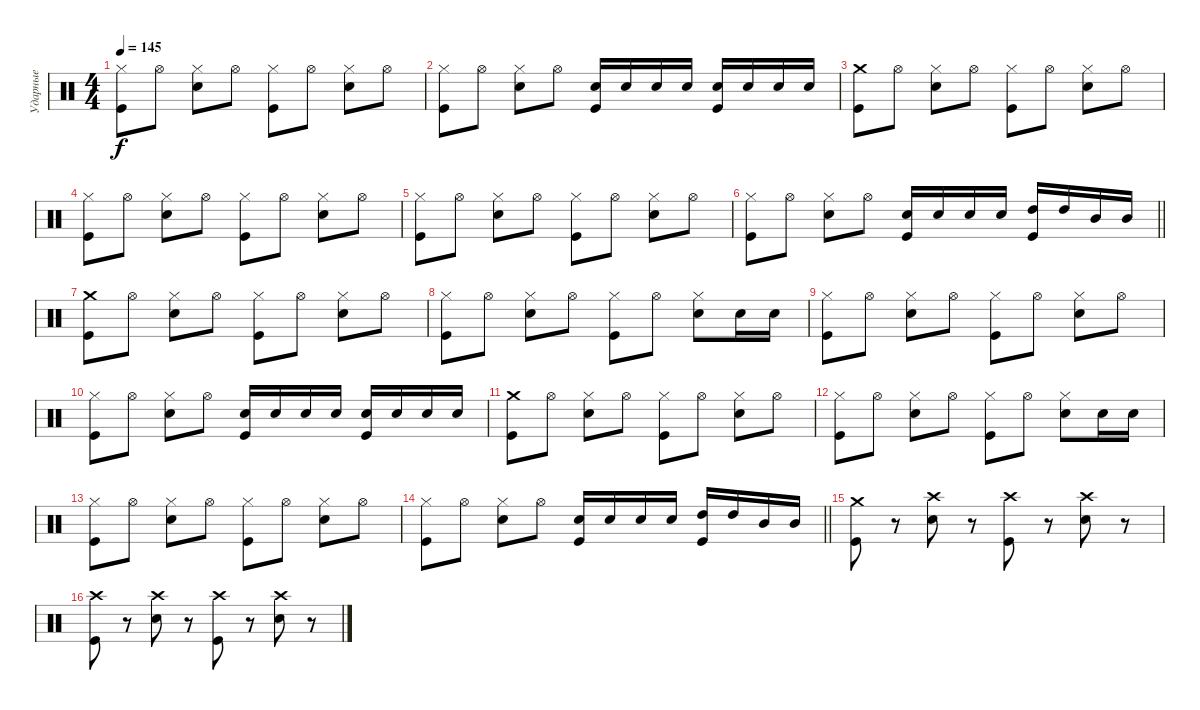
\track ("Ударные" "Ударные") {instrument percussion}
\staff {score}
\articulation defaults
\ts (4 4)
\tempo 145
\clef neutral
\ks c
("Hi-Hat (closed)" "Kick (hit)").8{dy f} "Hi-Hat (open)".8 ("Hi-Hat (closed)" "Electric Snare (hit)").8 "Hi-Hat (open)".8 ("Hi-Hat (closed)" "Kick (hit)").8 "Hi-Hat (open)".8 ("Hi-Hat (closed)" "Electric Snare (hit)").8 "Hi-Hat (open)".8 |
("Hi-Hat (closed)" "Kick (hit)").8 "Hi-Hat (open)".8 ("Hi-Hat (closed)" "Electric Snare (hit)").8 "Hi-Hat (open)".8 ("Electric Snare (hit)" "Kick (hit)").16 "Electric Snare (hit)".16 "Electric Snare (hit)".16 "Electric Snare (hit)".16 ("Electric Snare (hit)" "Kick (hit)").16 "Electric Snare (hit)".16 "Electric Snare (hit)".16 "Electric Snare (hit)".16 |
("Crash medium (hit)" "Kick (hit)").8 "Hi-Hat (open)".8 ("Hi-Hat (closed)" "Electric Snare (hit)").8 "Hi-Hat (open)".8 ("Hi-Hat (closed)" "Kick (hit)").8 "Hi-Hat (open)".8 ("Hi-Hat (closed)" "Electric Snare (hit)").8 "Hi-Hat (open)".8 |
("Hi-Hat (closed)" "Kick (hit)").8 "Hi-Hat (open)".8 ("Hi-Hat (closed)" "Electric Snare (hit)").8 "Hi-Hat (open)".8 ("Hi-Hat (closed)" "Kick (hit)").8 "Hi-Hat (open)".8 ("Hi-Hat (closed)" "Electric Snare (hit)").8 "Hi-Hat (open)".8 |
("Hi-Hat (closed)" "Kick (hit)").8 "Hi-Hat (open)".8 ("Hi-Hat (closed)" "Electric Snare (hit)").8 "Hi-Hat (open)".8 ("Hi-Hat (closed)" "Kick (hit)").8 "Hi-Hat (open)".8 ("Hi-Hat (closed)" "Electric Snare (hit)").8 "Hi-Hat (open)".8 |
\barLineRight lightlight
("Hi-Hat (closed)" "Kick (hit)").8 "Hi-Hat (open)".8 ("Hi-Hat (closed)" "Electric Snare (hit)").8 "Hi-Hat (open)".8 ("Electric Snare (hit)" "Kick (hit)").16 "Electric Snare (hit)".16 "Electric Snare (hit)".16 "Electric Snare (hit)".16 ("High Tom (hit)" "Kick (hit)").16 "High Tom (hit)".16 "Mid Tom (hit)".16 "Mid Tom (hit)".16 |
\section ("" " ")
("Crash medium (hit)" "Kick (hit)").8 "Hi-Hat (open)".8 ("Hi-Hat (closed)" "Electric Snare (hit)").8 "Hi-Hat (open)".8 ("Hi-Hat (closed)" "Kick (hit)").8 "Hi-Hat (open)".8 ("Hi-Hat (closed)" "Electric Snare (hit)").8 "Hi-Hat (open)".8 |
("Hi-Hat (closed)" "Kick (hit)").8 "Hi-Hat (open)".8 ("Hi-Hat (closed)" "Electric Snare (hit)").8 "Hi-Hat (open)".8 ("Hi-Hat (closed)" "Kick (hit)").8 "Hi-Hat (open)".8 ("Hi-Hat (closed)" "Electric Snare (hit)").8 "Electric Snare (hit)".16 "Electric Snare (hit)".16 |
("Hi-Hat (closed)" "Kick (hit)").8 "Hi-Hat (open)".8 ("Hi-Hat (closed)" "Electric Snare (hit)").8 "Hi-Hat (open)".8 ("Hi-Hat (closed)" "Kick (hit)").8 "Hi-Hat (open)".8 ("Hi-Hat (closed)" "Electric Snare (hit)").8 "Hi-Hat (open)".8 |
("Hi-Hat (closed)" "Kick (hit)").8 "Hi-Hat (open)".8 ("Hi-Hat (closed)" "Electric Snare (hit)").8 "Hi-Hat (open)".8 ("Electric Snare (hit)" "Kick (hit)").16 "Electric Snare (hit)".16 "Electric Snare (hit)".16 "Electric Snare (hit)".16 ("Electric Snare (hit)" "Kick (hit)").16 "Electric Snare (hit)".16 "Electric Snare (hit)".16 "Electric Snare (hit)".16 |
("Crash medium (hit)" "Kick (hit)").8 "Hi-Hat (open)".8 ("Hi-Hat (closed)" "Electric Snare (hit)").8 "Hi-Hat (open)".8 ("Hi-Hat (closed)" "Kick (hit)").8 "Hi-Hat (open)".8 ("Hi-Hat (closed)" "Electric Snare (hit)").8 "Hi-Hat (open)".8 |
("Hi-Hat (closed)" "Kick (hit)").8 "Hi-Hat (open)".8 ("Hi-Hat (closed)" "Electric Snare (hit)").8 "Hi-Hat (open)".8 ("Hi-Hat (closed)" "Kick (hit)").8 "Hi-Hat (open)".8 ("Hi-Hat (closed)" "Electric Snare (hit)").8 "Electric Snare (hit)".16 "Electric Snare (hit)".16 |
("Hi-Hat (closed)" "Kick (hit)").8 "Hi-Hat (open)".8 ("Hi-Hat (closed)" "Electric Snare (hit)").8 "Hi-Hat (open)".8 ("Hi-Hat (closed)" "Kick (hit)").8 "Hi-Hat (open)".8 ("Hi-Hat (closed)" "Electric Snare (hit)").8 "Hi-Hat (open)".8 |
\barLineRight lightlight
("Hi-Hat (closed)" "Kick (hit)").8 "Hi-Hat (open)".8 ("Hi-Hat (closed)" "Electric Snare (hit)").8 "Hi-Hat (open)".8 ("Electric Snare (hit)" "Kick (hit)").16 "Electric Snare (hit)".16 "Electric Snare (hit)".16 "Electric Snare (hit)".16 ("High Tom (hit)" "Kick (hit)").16 "High Tom (hit)".16 "Mid Tom (hit)".16 "Mid Tom (hit)".16 |
\section ("" " ")
("Crash medium (hit)" "Kick (hit)").8 r.8 ("Crash high (hit)" "Electric Snare (hit)").8 r.8 ("Crash high (hit)" "Kick (hit)").8 r.8 ("Crash high (hit)" "Electric Snare (hit)").8 r.8 |
("Crash high (hit)" "Kick (hit)").8 r.8 ("Crash high (hit)" "Electric Snare (hit)").8 r.8 ("Crash high (hit)" "Kick (hit)").8 r.8 ("Crash high (hit)" "Electric Snare (hit)").8 r.8
